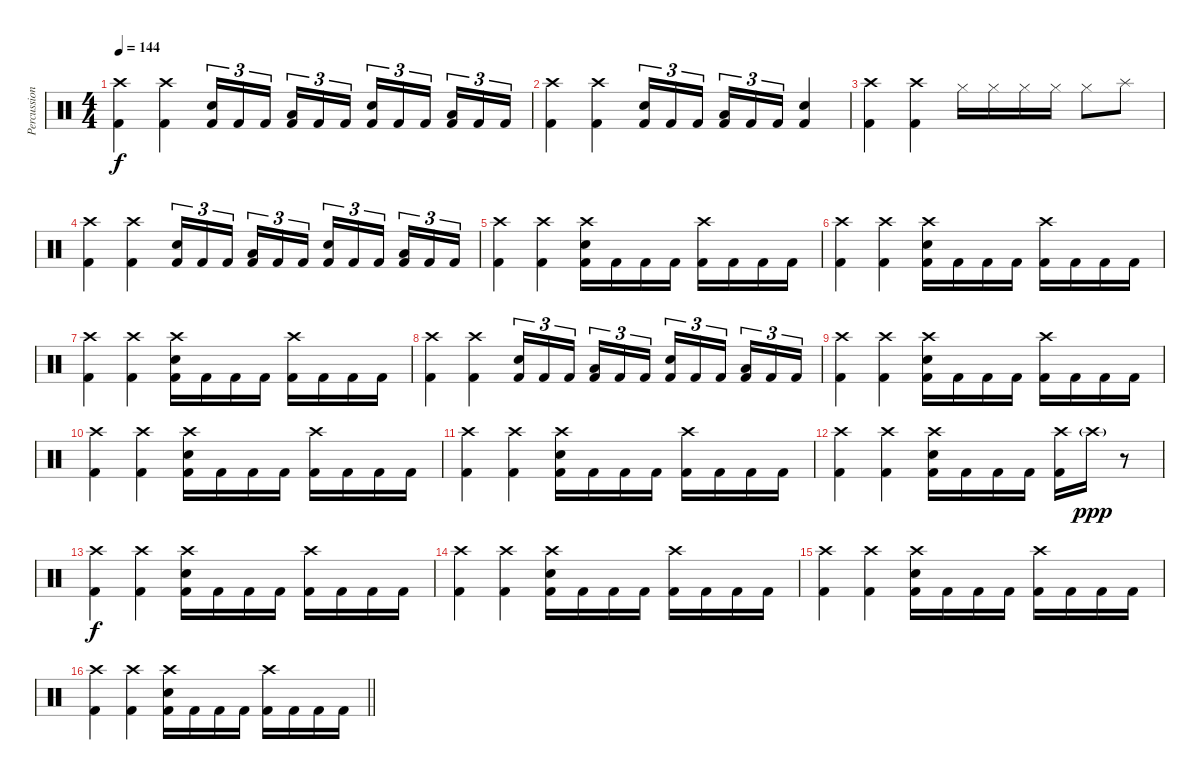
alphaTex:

\track ("Percussion" "Percussion") {instrument percussion}
\staff {score}
\articulation defaults
\ts (4 4)
\tempo 144
\clef neutral
\ks c
("Crash high (hit)" "Kick (hit) 2").4{dy f} ("Crash high (hit)" "Kick (hit) 2").4 ("Snare (hit) 2" "Kick (hit) 2").16{tu (3 2)} "Kick (hit) 2".16{tu (3 2)} "Kick (hit) 2".16{tu (3 2) beam splitsecondary} ("Low Tom (hit)" "Kick (hit) 2").16{tu (3 2)} "Kick (hit) 2".16{tu (3 2)} "Kick (hit) 2".16{tu (3 2)} ("Snare (hit) 2" "Kick (hit) 2").16{tu (3 2)} "Kick (hit) 2".16{tu (3 2)} "Kick (hit) 2".16{tu (3 2) beam splitsecondary} ("Low Tom (hit)" "Kick (hit) 2").16{tu (3 2)} "Kick (hit) 2".16{tu (3 2)} "Kick (hit) 2".16{tu (3 2)} |
("Crash high (hit)" "Kick (hit) 2").4 ("Crash high (hit)" "Kick (hit) 2").4 ("Snare (hit) 2" "Kick (hit) 2").16{tu (3 2)} "Kick (hit) 2".16{tu (3 2)} "Kick (hit) 2".16{tu (3 2) beam splitsecondary} ("Low Tom (hit)" "Kick (hit) 2").16{tu (3 2)} "Kick (hit) 2".16{tu (3 2)} "Kick (hit) 2".16{tu (3 2)} ("Snare (hit) 2" "Kick (hit) 2").4 |
("Crash high (hit)" "Kick (hit) 2").4 ("Crash high (hit)" "Kick (hit) 2").4 "Hi-Hat (closed)".16 "Hi-Hat (closed)".16 "Hi-Hat (closed)".16 "Hi-Hat (closed)".16 "Hi-Hat (closed)".8 "Splash (hit)".8 |
("Crash high (hit)" "Kick (hit) 2").4 ("Crash high (hit)" "Kick (hit) 2").4 ("Snare (hit) 2" "Kick (hit) 2").16{tu (3 2)} "Kick (hit) 2".16{tu (3 2)} "Kick (hit) 2".16{tu (3 2) beam splitsecondary} ("Low Tom (hit)" "Kick (hit) 2").16{tu (3 2)} "Kick (hit) 2".16{tu (3 2)} "Kick (hit) 2".16{tu (3 2)} ("Snare (hit) 2" "Kick (hit) 2").16{tu (3 2)} "Kick (hit) 2".16{tu (3 2)} "Kick (hit) 2".16{tu (3 2) beam splitsecondary} ("Low Tom (hit)" "Kick (hit) 2").16{tu (3 2)} "Kick (hit) 2".16{tu (3 2)} "Kick (hit) 2".16{tu (3 2)} |
("Crash high (hit)" "Kick (hit) 2").4 ("Crash high (hit)" "Kick (hit) 2").4 ("Crash high (hit)" "Snare (hit) 2" "Kick (hit) 2").16 "Kick (hit) 2".16 "Kick (hit) 2".16 "Kick (hit) 2".16 ("Crash high (hit)" "Kick (hit) 2").16 "Kick (hit) 2".16 "Kick (hit) 2".16 "Kick (hit) 2".16 |
("Crash high (hit)" "Kick (hit) 2").4 ("Crash high (hit)" "Kick (hit) 2").4 ("Crash high (hit)" "Snare (hit) 2" "Kick (hit) 2").16 "Kick (hit) 2".16 "Kick (hit) 2".16 "Kick (hit) 2".16 ("Crash high (hit)" "Kick (hit) 2").16 "Kick (hit) 2".16 "Kick (hit) 2".16 "Kick (hit) 2".16 |
("Crash high (hit)" "Kick (hit) 2").4 ("Crash high (hit)" "Kick (hit) 2").4 ("Crash high (hit)" "Snare (hit) 2" "Kick (hit) 2").16 "Kick (hit) 2".16 "Kick (hit) 2".16 "Kick (hit) 2".16 ("Crash high (hit)" "Kick (hit) 2").16 "Kick (hit) 2".16 "Kick (hit) 2".16 "Kick (hit) 2".16 |
("Crash high (hit)" "Kick (hit) 2").4 ("Crash high (hit)" "Kick (hit) 2").4 ("Snare (hit) 2" "Kick (hit) 2").16{tu (3 2)} "Kick (hit) 2".16{tu (3 2)} "Kick (hit) 2".16{tu (3 2) beam splitsecondary} ("Low Tom (hit)" "Kick (hit) 2").16{tu (3 2)} "Kick (hit) 2".16{tu (3 2)} "Kick (hit) 2".16{tu (3 2)} ("Snare (hit) 2" "Kick (hit) 2").16{tu (3 2)} "Kick (hit) 2".16{tu (3 2)} "Kick (hit) 2".16{tu (3 2) beam splitsecondary} ("Low Tom (hit)" "Kick (hit) 2").16{tu (3 2)} "Kick (hit) 2".16{tu (3 2)} "Kick (hit) 2".16{tu (3 2)} |
("Crash high (hit)" "Kick (hit) 2").4 ("Crash high (hit)" "Kick (hit) 2").4 ("Crash high (hit)" "Snare (hit) 2" "Kick (hit) 2").16 "Kick (hit) 2".16 "Kick (hit) 2".16 "Kick (hit) 2".16 ("Crash high (hit)" "Kick (hit) 2").16 "Kick (hit) 2".16 "Kick (hit) 2".16 "Kick (hit) 2".16 |
("Crash high (hit)" "Kick (hit) 2").4 ("Crash high (hit)" "Kick (hit) 2").4 ("Crash high (hit)" "Snare (hit) 2" "Kick (hit) 2").16 "Kick (hit) 2".16 "Kick (hit) 2".16 "Kick (hit) 2".16 ("Crash high (hit)" "Kick (hit) 2").16 "Kick (hit) 2".16 "Kick (hit) 2".16 "Kick (hit) 2".16 |
("Crash high (hit)" "Kick (hit) 2").4 ("Crash high (hit)" "Kick (hit) 2").4 ("Crash high (hit)" "Snare (hit) 2" "Kick (hit) 2").16 "Kick (hit) 2".16 "Kick (hit) 2".16 "Kick (hit) 2".16 ("Crash high (hit)" "Kick (hit) 2").16 "Kick (hit) 2".16 "Kick (hit) 2".16 "Kick (hit) 2".16 |
("Crash high (hit)" "Kick (hit) 2").4 ("Crash high (hit)" "Kick (hit) 2").4 ("Crash high (hit)" "Snare (hit) 2" "Kick (hit) 2").16 "Kick (hit) 2".16 "Kick (hit) 2".16 "Kick (hit) 2".16 ("Crash high (hit)" "Kick (hit) 2").16 "Crash high (hit)"{g}.16{dy ppp} r.8 |
("Crash high (hit)" "Kick (hit) 2").4{dy f} ("Crash high (hit)" "Kick (hit) 2").4 ("Crash high (hit)" "Snare (hit) 2" "Kick (hit) 2").16 "Kick (hit) 2".16 "Kick (hit) 2".16 "Kick (hit) 2".16 ("Crash high (hit)" "Kick (hit) 2").16 "Kick (hit) 2".16 "Kick (hit) 2".16 "Kick (hit) 2".16 |
("Crash high (hit)" "Kick (hit) 2").4 ("Crash high (hit)" "Kick (hit) 2").4 ("Crash high (hit)" "Snare (hit) 2" "Kick (hit) 2").16 "Kick (hit) 2".16 "Kick (hit) 2".16 "Kick (hit) 2".16 ("Crash high (hit)" "Kick (hit) 2").16 "Kick (hit) 2".16 "Kick (hit) 2".16 "Kick (hit) 2".16 |
("Crash high (hit)" "Kick (hit) 2").4 ("Crash high (hit)" "Kick (hit) 2").4 ("Crash high (hit)" "Snare (hit) 2" "Kick (hit) 2").16 "Kick (hit) 2".16 "Kick (hit) 2".16 "Kick (hit) 2".16 ("Crash high (hit)" "Kick (hit) 2").16 "Kick (hit) 2".16 "Kick (hit) 2".16 "Kick (hit) 2".16 |
\barLineRight lightlight
("Crash high (hit)" "Kick (hit) 2").4 ("Crash high (hit)" "Kick (hit) 2").4 ("Crash high (hit)" "Snare (hit) 2" "Kick (hit) 2").16 "Kick (hit) 2".16 "Kick (hit) 2".16 "Kick (hit) 2".16 ("Crash high (hit)" "Kick (hit) 2").16 "Kick (hit) 2".16 "Kick (hit) 2".16 "Kick (hit) 2".16
